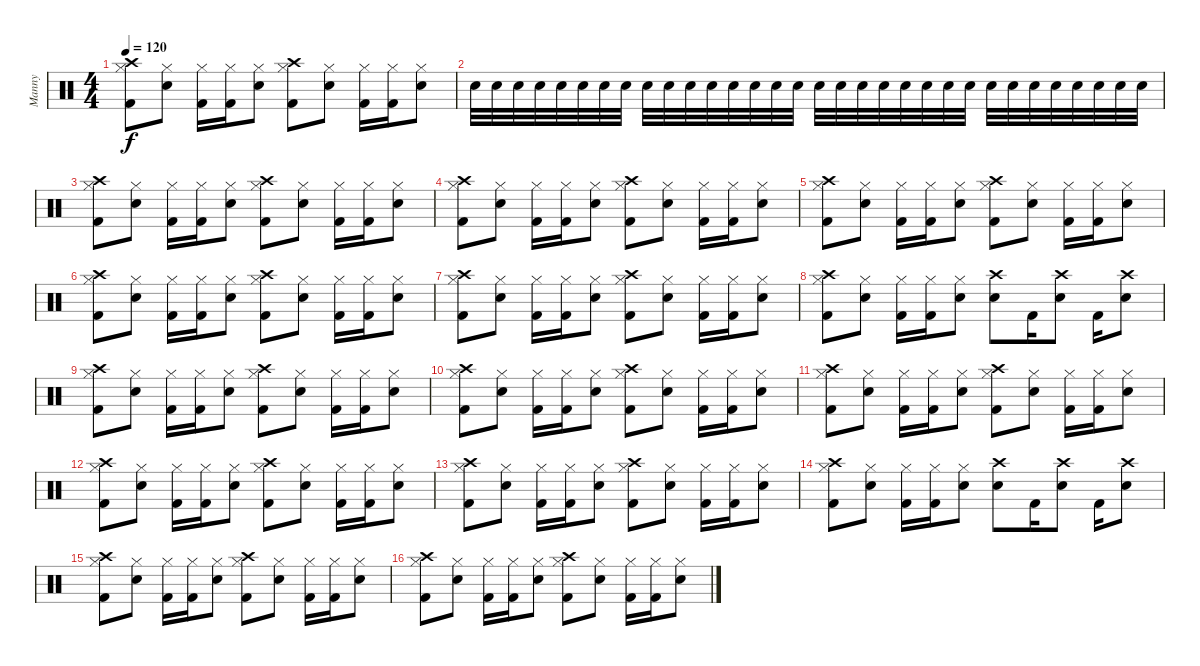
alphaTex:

\track ("Manny" "Manny") {instrument percussion}
\staff {score}
\articulation defaults
\ts (4 4)
\tempo 120
\clef neutral
\ks c
("Kick (hit) 2" "Crash high (hit)" "Hi-Hat (closed)").8{dy f} ("Snare (hit) 2" "Hi-Hat (closed)").8 ("Kick (hit) 2" "Hi-Hat (closed)").16 ("Kick (hit) 2" "Hi-Hat (closed)").16 ("Snare (hit) 2" "Hi-Hat (closed)").8 ("Kick (hit) 2" "Crash high (hit)" "Hi-Hat (closed)").8 ("Snare (hit) 2" "Hi-Hat (closed)").8 ("Kick (hit) 2" "Hi-Hat (closed)").16 ("Kick (hit) 2" "Hi-Hat (closed)").16 ("Snare (hit) 2" "Hi-Hat (closed)").8 |
"Snare (hit) 2".32 "Snare (hit) 2".32 "Snare (hit) 2".32 "Snare (hit) 2".32 "Snare (hit) 2".32 "Snare (hit) 2".32 "Snare (hit) 2".32 "Snare (hit) 2".32 "Snare (hit) 2".32 "Snare (hit) 2".32 "Snare (hit) 2".32 "Snare (hit) 2".32 "Snare (hit) 2".32 "Snare (hit) 2".32 "Snare (hit) 2".32 "Snare (hit) 2".32 "Snare (hit) 2".32 "Snare (hit) 2".32 "Snare (hit) 2".32 "Snare (hit) 2".32 "Snare (hit) 2".32 "Snare (hit) 2".32 "Snare (hit) 2".32 "Snare (hit) 2".32 "Snare (hit) 2".32 "Snare (hit) 2".32 "Snare (hit) 2".32 "Snare (hit) 2".32 "Snare (hit) 2".32 "Snare (hit) 2".32 "Snare (hit) 2".32 "Snare (hit) 2".32 |
("Kick (hit) 2" "Crash high (hit)" "Hi-Hat (closed)").8 ("Snare (hit) 2" "Hi-Hat (closed)").8 ("Kick (hit) 2" "Hi-Hat (closed)").16 ("Kick (hit) 2" "Hi-Hat (closed)").16 ("Snare (hit) 2" "Hi-Hat (closed)").8 ("Kick (hit) 2" "Crash high (hit)" "Hi-Hat (closed)").8 ("Snare (hit) 2" "Hi-Hat (closed)").8 ("Kick (hit) 2" "Hi-Hat (closed)").16 ("Kick (hit) 2" "Hi-Hat (closed)").16 ("Snare (hit) 2" "Hi-Hat (closed)").8 |
("Kick (hit) 2" "Hi-Hat (closed)" "Crash high (hit)").8 ("Snare (hit) 2" "Hi-Hat (closed)").8 ("Kick (hit) 2" "Hi-Hat (closed)").16 ("Kick (hit) 2" "Hi-Hat (closed)").16 ("Snare (hit) 2" "Hi-Hat (closed)").8 ("Kick (hit) 2" "Hi-Hat (closed)" "Crash high (hit)").8 ("Snare (hit) 2" "Hi-Hat (closed)").8 ("Kick (hit) 2" "Hi-Hat (closed)").16 ("Kick (hit) 2" "Hi-Hat (closed)").16 ("Snare (hit) 2" "Hi-Hat (closed)").8 |
("Kick (hit) 2" "Crash high (hit)" "Hi-Hat (closed)").8 ("Snare (hit) 2" "Hi-Hat (closed)").8 ("Kick (hit) 2" "Hi-Hat (closed)").16 ("Kick (hit) 2" "Hi-Hat (closed)").16 ("Snare (hit) 2" "Hi-Hat (closed)").8 ("Kick (hit) 2" "Crash high (hit)" "Hi-Hat (closed)").8 ("Snare (hit) 2" "Hi-Hat (closed)").8 ("Kick (hit) 2" "Hi-Hat (closed)").16 ("Kick (hit) 2" "Hi-Hat (closed)").16 ("Snare (hit) 2" "Hi-Hat (closed)").8 |
("Kick (hit) 2" "Crash high (hit)" "Hi-Hat (closed)").8 ("Snare (hit) 2" "Hi-Hat (closed)").8 ("Kick (hit) 2" "Hi-Hat (closed)").16 ("Kick (hit) 2" "Hi-Hat (closed)").16 ("Snare (hit) 2" "Hi-Hat (closed)").8 ("Kick (hit) 2" "Crash high (hit)" "Hi-Hat (closed)").8 ("Snare (hit) 2" "Hi-Hat (closed)").8 ("Kick (hit) 2" "Hi-Hat (closed)").16 ("Kick (hit) 2" "Hi-Hat (closed)").16 ("Snare (hit) 2" "Hi-Hat (closed)").8 |
("Kick (hit) 2" "Crash high (hit)" "Hi-Hat (closed)").8 ("Snare (hit) 2" "Hi-Hat (closed)").8 ("Kick (hit) 2" "Hi-Hat (closed)").16 ("Kick (hit) 2" "Hi-Hat (closed)").16 ("Snare (hit) 2" "Hi-Hat (closed)").8 ("Kick (hit) 2" "Crash high (hit)" "Hi-Hat (closed)").8 ("Snare (hit) 2" "Hi-Hat (closed)").8 ("Kick (hit) 2" "Hi-Hat (closed)").16 ("Kick (hit) 2" "Hi-Hat (closed)").16 ("Snare (hit) 2" "Hi-Hat (closed)").8 |
("Kick (hit) 2" "Hi-Hat (closed)" "Crash high (hit)").8 ("Snare (hit) 2" "Hi-Hat (closed)").8 ("Kick (hit) 2" "Hi-Hat (closed)").16 ("Kick (hit) 2" "Hi-Hat (closed)").16 ("Snare (hit) 2" "Hi-Hat (closed)").8 ("Snare (hit) 2" "Crash high (hit)").8 "Kick (hit) 2".16 ("Snare (hit) 2" "Crash high (hit)").8 "Kick (hit) 2".16 ("Snare (hit) 2" "Crash high (hit)").8 |
("Kick (hit) 2" "Crash high (hit)" "Hi-Hat (closed)").8 ("Snare (hit) 2" "Hi-Hat (closed)").8 ("Kick (hit) 2" "Hi-Hat (closed)").16 ("Kick (hit) 2" "Hi-Hat (closed)").16 ("Snare (hit) 2" "Hi-Hat (closed)").8 ("Kick (hit) 2" "Crash high (hit)" "Hi-Hat (closed)").8 ("Snare (hit) 2" "Hi-Hat (closed)").8 ("Kick (hit) 2" "Hi-Hat (closed)").16 ("Kick (hit) 2" "Hi-Hat (closed)").16 ("Snare (hit) 2" "Hi-Hat (closed)").8 |
("Kick (hit) 2" "Crash high (hit)" "Hi-Hat (closed)").8 ("Snare (hit) 2" "Hi-Hat (closed)").8 ("Kick (hit) 2" "Hi-Hat (closed)").16 ("Kick (hit) 2" "Hi-Hat (closed)").16 ("Snare (hit) 2" "Hi-Hat (closed)").8 ("Kick (hit) 2" "Crash high (hit)" "Hi-Hat (closed)").8 ("Snare (hit) 2" "Hi-Hat (closed)").8 ("Kick (hit) 2" "Hi-Hat (closed)").16 ("Kick (hit) 2" "Hi-Hat (closed)").16 ("Snare (hit) 2" "Hi-Hat (closed)").8 |
("Kick (hit) 2" "Crash high (hit)" "Hi-Hat (closed)").8 ("Snare (hit) 2" "Hi-Hat (closed)").8 ("Kick (hit) 2" "Hi-Hat (closed)").16 ("Kick (hit) 2" "Hi-Hat (closed)").16 ("Snare (hit) 2" "Hi-Hat (closed)").8 ("Kick (hit) 2" "Crash high (hit)" "Hi-Hat (closed)").8 ("Snare (hit) 2" "Hi-Hat (closed)").8 ("Kick (hit) 2" "Hi-Hat (closed)").16 ("Kick (hit) 2" "Hi-Hat (closed)").16 ("Snare (hit) 2" "Hi-Hat (closed)").8 |
("Kick (hit) 2" "Crash high (hit)" "Hi-Hat (closed)").8 ("Snare (hit) 2" "Hi-Hat (closed)").8 ("Kick (hit) 2" "Hi-Hat (closed)").16 ("Kick (hit) 2" "Hi-Hat (closed)").16 ("Snare (hit) 2" "Hi-Hat (closed)").8 ("Kick (hit) 2" "Crash high (hit)" "Hi-Hat (closed)").8 ("Snare (hit) 2" "Hi-Hat (closed)").8 ("Kick (hit) 2" "Hi-Hat (closed)").16 ("Kick (hit) 2" "Hi-Hat (closed)").16 ("Snare (hit) 2" "Hi-Hat (closed)").8 |
("Kick (hit) 2" "Crash high (hit)" "Hi-Hat (closed)").8 ("Snare (hit) 2" "Hi-Hat (closed)").8 ("Kick (hit) 2" "Hi-Hat (closed)").16 ("Kick (hit) 2" "Hi-Hat (closed)").16 ("Snare (hit) 2" "Hi-Hat (closed)").8 ("Kick (hit) 2" "Crash high (hit)" "Hi-Hat (closed)").8 ("Snare (hit) 2" "Hi-Hat (closed)").8 ("Kick (hit) 2" "Hi-Hat (closed)").16 ("Kick (hit) 2" "Hi-Hat (closed)").16 ("Snare (hit) 2" "Hi-Hat (closed)").8 |
("Kick (hit) 2" "Hi-Hat (closed)" "Crash high (hit)").8 ("Snare (hit) 2" "Hi-Hat (closed)").8 ("Kick (hit) 2" "Hi-Hat (closed)").16 ("Kick (hit) 2" "Hi-Hat (closed)").16 ("Snare (hit) 2" "Hi-Hat (closed)").8 ("Snare (hit) 2" "Crash high (hit)").8 "Kick (hit) 2".16 ("Snare (hit) 2" "Crash high (hit)").8 "Kick (hit) 2".16 ("Snare (hit) 2" "Crash high (hit)").8 |
("Kick (hit) 2" "Crash high (hit)" "Hi-Hat (closed)").8 ("Snare (hit) 2" "Hi-Hat (closed)").8 ("Kick (hit) 2" "Hi-Hat (closed)").16 ("Kick (hit) 2" "Hi-Hat (closed)").16 ("Snare (hit) 2" "Hi-Hat (closed)").8 ("Kick (hit) 2" "Crash high (hit)" "Hi-Hat (closed)").8 ("Snare (hit) 2" "Hi-Hat (closed)").8 ("Kick (hit) 2" "Hi-Hat (closed)").16 ("Kick (hit) 2" "Hi-Hat (closed)").16 ("Snare (hit) 2" "Hi-Hat (closed)").8 |
("Kick (hit) 2" "Crash high (hit)" "Hi-Hat (closed)").8 ("Snare (hit) 2" "Hi-Hat (closed)").8 ("Kick (hit) 2" "Hi-Hat (closed)").16 ("Kick (hit) 2" "Hi-Hat (closed)").16 ("Snare (hit) 2" "Hi-Hat (closed)").8 ("Kick (hit) 2" "Crash high (hit)" "Hi-Hat (closed)").8 ("Snare (hit) 2" "Hi-Hat (closed)").8 ("Kick (hit) 2" "Hi-Hat (closed)").16 ("Kick (hit) 2" "Hi-Hat (closed)").16 ("Snare (hit) 2" "Hi-Hat (closed)").8
